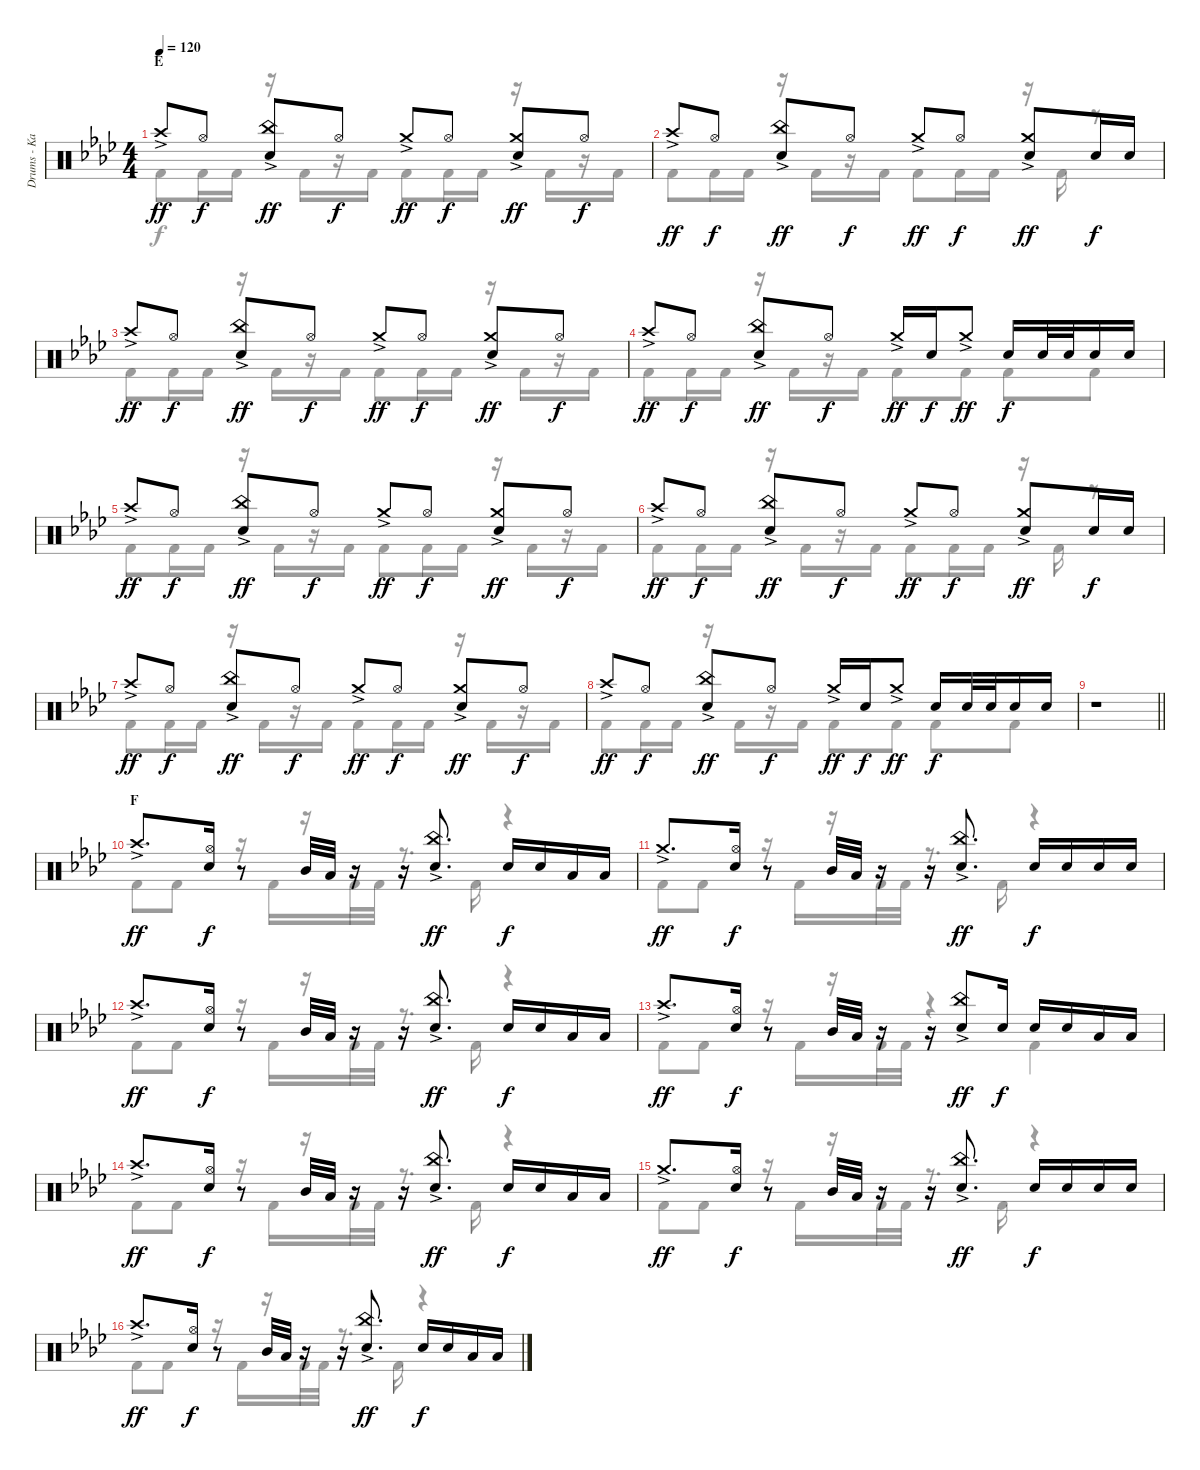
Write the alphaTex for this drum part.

\track ("Drums - Kai" "Drums - Ka") {instrument percussion}
\staff {score}
\articulation defaults
\voice
\ts (4 4)
\section ("" "E")
\tempo 120
\clef neutral
\ks ab "Crash high (hit)"{ac}.8{dy ff} "Hi-Hat (open)".8{dy f}
("China (hit)"{ac} "Snare (hit) 2").8{dy ff} "Hi-Hat (open)".8{dy f} "Crash medium (hit)"{ac}.8{dy ff} "Hi-Hat (open)".8{dy f} ("Crash medium (hit)"{ac} "Snare (hit) 2").8{dy ff} "Hi-Hat (open)".8{dy f} |
"Crash high (hit)"{ac}.8{dy ff} "Hi-Hat (open)".8{dy f} ("China (hit)"{ac} "Snare (hit) 2").8{dy ff} "Hi-Hat (open)".8{dy f} "Crash medium (hit)"{ac}.8{dy ff} "Hi-Hat (open)".8{dy f} ("Crash medium (hit)"{ac} "Snare (hit) 2").8{dy ff} "Snare (hit) 2".16{dy f} "Snare (hit) 2".16 |
"Crash high (hit)"{ac}.8{dy ff} "Hi-Hat (open)".8{dy f} ("China (hit)"{ac} "Snare (hit) 2").8{dy ff} "Hi-Hat (open)".8{dy f} "Crash medium (hit)"{ac}.8{dy ff} "Hi-Hat (open)".8{dy f} ("Crash medium (hit)"{ac} "Snare (hit) 2").8{dy ff} "Hi-Hat (open)".8{dy f} |
"Crash high (hit)"{ac}.8{dy ff} "Hi-Hat (open)".8{dy f} ("China (hit)"{ac} "Snare (hit) 2").8{dy ff} "Hi-Hat (open)".8{dy f} "Crash medium (hit)"{ac}.16{dy ff} "Snare (hit) 2".16{dy f} "Crash medium (hit)"{ac}.8{dy ff} "Snare (hit) 2".16{dy f} "Snare (hit) 2".32 "Snare (hit) 2".32 "Snare (hit) 2".16 "Snare (hit) 2".16 |
"Crash high (hit)"{ac}.8{dy ff} "Hi-Hat (open)".8{dy f} ("China (hit)"{ac} "Snare (hit) 2").8{dy ff} "Hi-Hat (open)".8{dy f} "Crash medium (hit)"{ac}.8{dy ff} "Hi-Hat (open)".8{dy f} ("Crash medium (hit)"{ac} "Snare (hit) 2").8{dy ff} "Hi-Hat (open)".8{dy f} |
"Crash high (hit)"{ac}.8{dy ff} "Hi-Hat (open)".8{dy f} ("China (hit)"{ac} "Snare (hit) 2").8{dy ff} "Hi-Hat (open)".8{dy f} "Crash medium (hit)"{ac}.8{dy ff} "Hi-Hat (open)".8{dy f} ("Crash medium (hit)"{ac} "Snare (hit) 2").8{dy ff} "Snare (hit) 2".16{dy f} "Snare (hit) 2".16 |
"Crash high (hit)"{ac}.8{dy ff} "Hi-Hat (open)".8{dy f} ("China (hit)"{ac} "Snare (hit) 2").8{dy ff} "Hi-Hat (open)".8{dy f} "Crash medium (hit)"{ac}.8{dy ff} "Hi-Hat (open)".8{dy f} ("Crash medium (hit)"{ac} "Snare (hit) 2").8{dy ff} "Hi-Hat (open)".8{dy f} |
"Crash high (hit)"{ac}.8{dy ff} "Hi-Hat (open)".8{dy f} ("China (hit)"{ac} "Snare (hit) 2").8{dy ff} "Hi-Hat (open)".8{dy f} "Crash medium (hit)"{ac}.16{dy ff} "Snare (hit) 2".16{dy f} "Crash medium (hit)"{ac}.8{dy ff} "Snare (hit) 2".16{dy f} "Snare (hit) 2".32 "Snare (hit) 2".32 "Snare (hit) 2".16 "Snare (hit) 2".16 |
\barLineRight lightlight
r.1 |
\section ("" "F")
"Crash high (hit)"{ac}.8{d dy ff} ("Hi-Hat (open)" "Snare (hit) 2").16{dy f} r.8 "Mid Tom (hit)".32 "Low Tom (hit)".32 r.16 r.16 ("China (hit)"{ac} "Snare (hit) 2").8{d dy ff} "Snare (hit) 2".16{dy f} "Snare (hit) 2".16 "Low Tom (hit)".16 "Low Tom (hit)".16 |
"Crash medium (hit)"{ac}.8{d dy ff} ("Hi-Hat (open)" "Snare (hit) 2").16{dy f} r.8 "Mid Tom (hit)".32 "Low Tom (hit)".32 r.16 r.16 ("China (hit)"{ac} "Snare (hit) 2").8{d dy ff} "Snare (hit) 2".16{dy f} "Snare (hit) 2".16 "Snare (hit) 2".16 "Snare (hit) 2".16 |
"Crash high (hit)"{ac}.8{d dy ff} ("Hi-Hat (open)" "Snare (hit) 2").16{dy f} r.8 "Mid Tom (hit)".32 "Low Tom (hit)".32 r.16 r.16 ("China (hit)"{ac} "Snare (hit) 2").8{d dy ff} "Snare (hit) 2".16{dy f} "Snare (hit) 2".16 "Low Tom (hit)".16 "Low Tom (hit)".16 |
"Crash high (hit)"{ac}.8{d dy ff} ("Hi-Hat (open)" "Snare (hit) 2").16{dy f} r.8 "Mid Tom (hit)".32 "Low Tom (hit)".32 r.16 r.16 ("China (hit)"{ac} "Snare (hit) 2").8{dy ff} "Snare (hit) 2".16{dy f} "Snare (hit) 2".16 "Snare (hit) 2".16 "Low Tom (hit)".16 "Low Tom (hit)".16 |
"Crash high (hit)"{ac}.8{d dy ff} ("Hi-Hat (open)" "Snare (hit) 2").16{dy f} r.8 "Mid Tom (hit)".32 "Low Tom (hit)".32 r.16 r.16 ("China (hit)"{ac} "Snare (hit) 2").8{d dy ff} "Snare (hit) 2".16{dy f} "Snare (hit) 2".16 "Low Tom (hit)".16 "Low Tom (hit)".16 |
"Crash medium (hit)"{ac}.8{d dy ff} ("Hi-Hat (open)" "Snare (hit) 2").16{dy f} r.8 "Mid Tom (hit)".32 "Low Tom (hit)".32 r.16 r.16 ("China (hit)"{ac} "Snare (hit) 2").8{d dy ff} "Snare (hit) 2".16{dy f} "Snare (hit) 2".16 "Snare (hit) 2".16 "Snare (hit) 2".16 |
"Crash high (hit)"{ac}.8{d dy ff} ("Hi-Hat (open)" "Snare (hit) 2").16{dy f} r.8 "Mid Tom (hit)".32 "Low Tom (hit)".32 r.16 r.16 ("China (hit)"{ac} "Snare (hit) 2").8{d dy ff} "Snare (hit) 2".16{dy f} "Snare (hit) 2".16 "Low Tom (hit)".16 "Low Tom (hit)".16
\voice
\clef neutral
\ottava regular
\simile none
\ks ab "Kick (hit) 2".8{dy f} "Kick (hit) 2".16 "Kick (hit) 2".16
r.16 "Kick (hit) 2".16 r.16 "Kick (hit) 2".16 "Kick (hit) 2".8 "Kick (hit) 2".16 "Kick (hit) 2".16 r.16 "Kick (hit) 2".16 r.16 "Kick (hit) 2".16 |
"Kick (hit) 2".8 "Kick (hit) 2".16 "Kick (hit) 2".16 r.16 "Kick (hit) 2".16 r.16 "Kick (hit) 2".16 "Kick (hit) 2".8 "Kick (hit) 2".16 "Kick (hit) 2".16 r.16 "Kick (hit) 2".16 r.8 |
"Kick (hit) 2".8 "Kick (hit) 2".16 "Kick (hit) 2".16 r.16 "Kick (hit) 2".16 r.16 "Kick (hit) 2".16 "Kick (hit) 2".8 "Kick (hit) 2".16 "Kick (hit) 2".16 r.16 "Kick (hit) 2".16 r.16 "Kick (hit) 2".16 |
"Kick (hit) 2".8 "Kick (hit) 2".16 "Kick (hit) 2".16 r.16 "Kick (hit) 2".16 r.16 "Kick (hit) 2".16 "Kick (hit) 2".8 "Kick (hit) 2".8 "Kick (hit) 2".8 "Kick (hit) 2".8 |
"Kick (hit) 2".8 "Kick (hit) 2".16 "Kick (hit) 2".16 r.16 "Kick (hit) 2".16 r.16 "Kick (hit) 2".16 "Kick (hit) 2".8 "Kick (hit) 2".16 "Kick (hit) 2".16 r.16 "Kick (hit) 2".16 r.16 "Kick (hit) 2".16 |
"Kick (hit) 2".8 "Kick (hit) 2".16 "Kick (hit) 2".16 r.16 "Kick (hit) 2".16 r.16 "Kick (hit) 2".16 "Kick (hit) 2".8 "Kick (hit) 2".16 "Kick (hit) 2".16 r.16 "Kick (hit) 2".16 r.8 |
"Kick (hit) 2".8 "Kick (hit) 2".16 "Kick (hit) 2".16 r.16 "Kick (hit) 2".16 r.16 "Kick (hit) 2".16 "Kick (hit) 2".8 "Kick (hit) 2".16 "Kick (hit) 2".16 r.16 "Kick (hit) 2".16 r.16 "Kick (hit) 2".16 |
"Kick (hit) 2".8 "Kick (hit) 2".16 "Kick (hit) 2".16 r.16 "Kick (hit) 2".16 r.16 "Kick (hit) 2".16 "Kick (hit) 2".8 "Kick (hit) 2".8 "Kick (hit) 2".8 "Kick (hit) 2".8 |
\barLineRight lightlight
|
"Kick (hit) 2".8 "Kick (hit) 2".8 r.16 "Kick (hit) 2".16 r.16 "Kick (hit) 2".32 "Kick (hit) 2".32 r.8{d} "Kick (hit) 2".16 r.4 |
"Kick (hit) 2".8 "Kick (hit) 2".8 r.16 "Kick (hit) 2".16 r.16 "Kick (hit) 2".32 "Kick (hit) 2".32 r.8{d} "Kick (hit) 2".16 r.4 |
"Kick (hit) 2".8 "Kick (hit) 2".8 r.16 "Kick (hit) 2".16 r.16 "Kick (hit) 2".32 "Kick (hit) 2".32 r.8{d} "Kick (hit) 2".16 r.4 |
"Kick (hit) 2".8 "Kick (hit) 2".8 r.16 "Kick (hit) 2".16 r.16 "Kick (hit) 2".32 "Kick (hit) 2".32 r.4 "Kick (hit) 2".4 |
"Kick (hit) 2".8 "Kick (hit) 2".8 r.16 "Kick (hit) 2".16 r.16 "Kick (hit) 2".32 "Kick (hit) 2".32 r.8{d} "Kick (hit) 2".16 r.4 |
"Kick (hit) 2".8 "Kick (hit) 2".8 r.16 "Kick (hit) 2".16 r.16 "Kick (hit) 2".32 "Kick (hit) 2".32 r.8{d} "Kick (hit) 2".16 r.4 |
"Kick (hit) 2".8 "Kick (hit) 2".8 r.16 "Kick (hit) 2".16 r.16 "Kick (hit) 2".32 "Kick (hit) 2".32 r.8{d} "Kick (hit) 2".16 r.4
